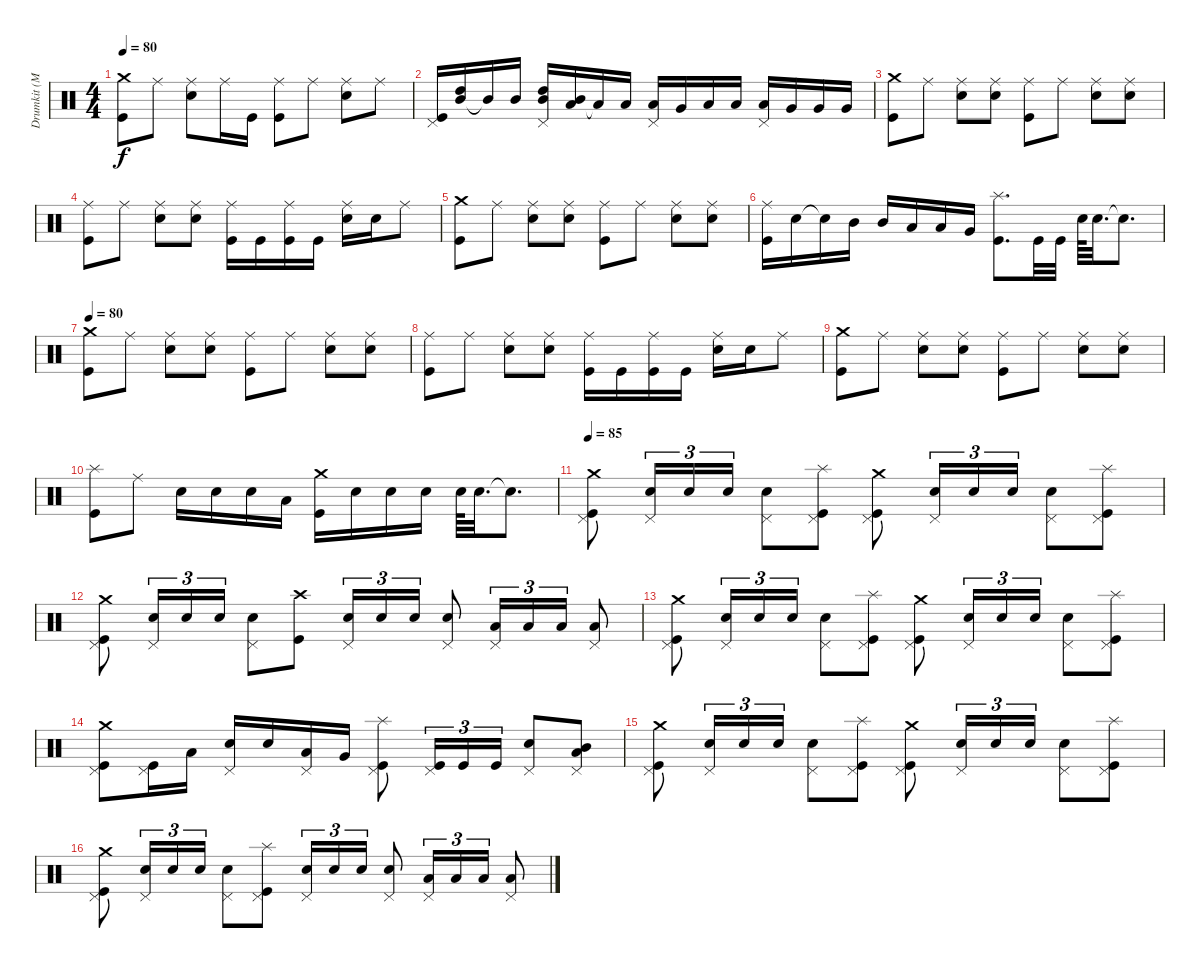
\track ("Drumkit (McBrain)" "Drumkit (M") {instrument percussion}
\staff {score}
\articulation defaults
\ts (4 4)
\tempo 80
\clef neutral
\ks c
("Crash medium (hit)" "Kick (hit)").8{dy f} "Ride (middle)".8 ("Snare (hit) 2" "Ride (middle)").8 "Ride (middle)".16 "Kick (hit)".16 ("Ride (middle)" "Kick (hit)").8 "Ride (middle)".8 ("Snare (hit) 2" "Ride (middle)").8 "Ride (middle)".8 |
("Kick (hit)" "Pedal Hi-Hat (hit)").16 ("Mid Tom (hit)" "High Tom (hit)").16 "Mid Tom (hit)"{t}.16 "Mid Tom (hit)".16 ("Mid Tom (hit)" "High Tom (hit)" "Pedal Hi-Hat (hit)").16 ("Low Tom (hit)" "Mid Tom (hit)").16 "Low Tom (hit)"{t}.16 "Low Tom (hit)".16 ("Low Tom (hit)" "Pedal Hi-Hat (hit)").16 "Very Low Tom (hit)".16 "Low Tom (hit)".16 "Low Tom (hit)".16 ("Low Tom (hit)" "Pedal Hi-Hat (hit)").16 "Very Low Tom (hit)".16 "Very Low Tom (hit)".16 "Very Low Tom (hit)".16 |
("Kick (hit)" "Crash medium (hit)").8 "Ride (middle)".8 ("Ride (middle)" "Snare (hit) 2").8 ("Ride (middle)" "Snare (hit) 2").8 ("Ride (middle)" "Kick (hit)").8 "Ride (middle)".8 ("Ride (middle)" "Snare (hit) 2").8 ("Ride (middle)" "Snare (hit) 2").8 |
("Ride (middle)" "Kick (hit)").8 "Ride (middle)".8 ("Ride (middle)" "Snare (hit) 2").8 ("Ride (middle)" "Snare (hit) 2").8 ("Kick (hit)" "Ride (middle)").16 "Kick (hit)".16 ("Kick (hit)" "Ride (middle)").16 "Kick (hit)".16 ("Snare (hit) 2" "Ride (middle)").16 "Snare (hit) 2".16 "Ride (middle)".8 |
("Kick (hit)" "Crash medium (hit)").8 "Ride (middle)".8 ("Ride (middle)" "Snare (hit) 2").8 ("Ride (middle)" "Snare (hit) 2").8 ("Ride (middle)" "Kick (hit)").8 "Ride (middle)".8 ("Ride (middle)" "Snare (hit) 2").8 ("Ride (middle)" "Snare (hit) 2").8 |
("Kick (hit)" "Ride (middle)").16 "Snare (hit) 2".16 "Snare (hit) 2"{t}.16 "Mid Tom (hit)".16 "Mid Tom (hit)".16 "Low Tom (hit)".16 "Low Tom (hit)".16 "Very Low Tom (hit)".16 ("Kick (hit)" "Splash (hit)").8{d} "Kick (hit)".32 "Kick (hit)".32 "Snare (hit) 2".64 "Snare (hit) 2".32{d} "Snare (hit) 2"{t}.8{d} |
\tempo 80
("Kick (hit)" "Crash medium (hit)").8 "Ride (middle)".8 ("Ride (middle)" "Snare (hit) 2").8 ("Ride (middle)" "Snare (hit) 2").8 ("Ride (middle)" "Kick (hit)").8 "Ride (middle)".8 ("Ride (middle)" "Snare (hit) 2").8 ("Ride (middle)" "Snare (hit) 2").8 |
("Ride (middle)" "Kick (hit)").8 "Ride (middle)".8 ("Ride (middle)" "Snare (hit) 2").8 ("Ride (middle)" "Snare (hit) 2").8 ("Kick (hit)" "Ride (middle)").16 "Kick (hit)".16 ("Kick (hit)" "Ride (middle)").16 "Kick (hit)".16 ("Snare (hit) 2" "Ride (middle)").16 "Snare (hit) 2".16 "Ride (middle)".8 |
("Kick (hit)" "Crash medium (hit)").8 "Ride (middle)".8 ("Ride (middle)" "Snare (hit) 2").8 ("Ride (middle)" "Snare (hit) 2").8 ("Ride (middle)" "Kick (hit)").8 "Ride (middle)".8 ("Ride (middle)" "Snare (hit) 2").8 ("Ride (middle)" "Snare (hit) 2").8 |
("Splash (hit)" "Kick (hit)").8 "Ride (middle)".8 "Snare (hit) 2".16 "Snare (hit) 2".16 "Snare (hit) 2".16 "Low Tom (hit)".16 ("Kick (hit)" "Crash medium (hit)").16 "Snare (hit) 2".16 "Snare (hit) 2".16 "Snare (hit) 2".16 "Snare (hit) 2".64 "Snare (hit) 2".32{d} "Snare (hit) 2"{t}.8{d} |
\tempo 85
("Kick (hit)" "Crash medium (hit)" "Pedal Hi-Hat (hit)").8 ("Snare (hit) 2" "Pedal Hi-Hat (hit)").16{tu (3 2)} "Snare (hit) 2".16{tu (3 2)} "Snare (hit) 2".16{tu (3 2)} ("Snare (hit) 2" "Pedal Hi-Hat (hit)").8 ("Kick (hit)" "Splash (hit)" "Pedal Hi-Hat (hit)").8 ("Kick (hit)" "Crash medium (hit)" "Pedal Hi-Hat (hit)").8 ("Snare (hit) 2" "Pedal Hi-Hat (hit)").16{tu (3 2)} "Snare (hit) 2".16{tu (3 2)} "Snare (hit) 2".16{tu (3 2)} ("Snare (hit) 2" "Pedal Hi-Hat (hit)").8 ("Kick (hit)" "Splash (hit)" "Pedal Hi-Hat (hit)").8 |
("Kick (hit)" "Crash medium (hit)" "Pedal Hi-Hat (hit)").8 ("Snare (hit) 2" "Pedal Hi-Hat (hit)").16{tu (3 2)} "Snare (hit) 2".16{tu (3 2)} "Snare (hit) 2".16{tu (3 2)} ("Snare (hit) 2" "Pedal Hi-Hat (hit)").8 ("Kick (hit)" "Crash high (hit)").8 ("Snare (hit) 2" "Pedal Hi-Hat (hit)").16{tu (3 2)} "Snare (hit) 2".16{tu (3 2)} "Snare (hit) 2".16{tu (3 2)} ("Snare (hit) 2" "Pedal Hi-Hat (hit)").8 ("Low Tom (hit)" "Pedal Hi-Hat (hit)").16{tu (3 2)} "Low Tom (hit)".16{tu (3 2)} "Low Tom (hit)".16{tu (3 2)} ("Low Tom (hit)" "Pedal Hi-Hat (hit)").8 |
("Kick (hit)" "Crash medium (hit)" "Pedal Hi-Hat (hit)").8 ("Snare (hit) 2" "Pedal Hi-Hat (hit)").16{tu (3 2)} "Snare (hit) 2".16{tu (3 2)} "Snare (hit) 2".16{tu (3 2)} ("Snare (hit) 2" "Pedal Hi-Hat (hit)").8 ("Kick (hit)" "Splash (hit)" "Pedal Hi-Hat (hit)").8 ("Kick (hit)" "Crash medium (hit)" "Pedal Hi-Hat (hit)").8 ("Snare (hit) 2" "Pedal Hi-Hat (hit)").16{tu (3 2)} "Snare (hit) 2".16{tu (3 2)} "Snare (hit) 2".16{tu (3 2)} ("Snare (hit) 2" "Pedal Hi-Hat (hit)").8 ("Kick (hit)" "Splash (hit)" "Pedal Hi-Hat (hit)").8 |
("Kick (hit)" "Crash medium (hit)" "Pedal Hi-Hat (hit)").8 ("Kick (hit)" "Pedal Hi-Hat (hit)").16 "Low Tom (hit)".16 ("Snare (hit) 2" "Pedal Hi-Hat (hit)").16 "Snare (hit) 2".16 ("Low Tom (hit)" "Pedal Hi-Hat (hit)").16 "Very Low Tom (hit)".16 ("Kick (hit)" "Splash (hit)" "Pedal Hi-Hat (hit)").8 ("Kick (hit)" "Pedal Hi-Hat (hit)").16{tu (3 2)} "Kick (hit)".16{tu (3 2)} "Kick (hit)".16{tu (3 2)} ("Snare (hit) 2" "Pedal Hi-Hat (hit)").8 ("Low Tom (hit)" "Mid Tom (hit)" "Pedal Hi-Hat (hit)").8 |
("Kick (hit)" "Crash medium (hit)" "Pedal Hi-Hat (hit)").8 ("Snare (hit) 2" "Pedal Hi-Hat (hit)").16{tu (3 2)} "Snare (hit) 2".16{tu (3 2)} "Snare (hit) 2".16{tu (3 2)} ("Snare (hit) 2" "Pedal Hi-Hat (hit)").8 ("Kick (hit)" "Splash (hit)" "Pedal Hi-Hat (hit)").8 ("Kick (hit)" "Crash medium (hit)" "Pedal Hi-Hat (hit)").8 ("Snare (hit) 2" "Pedal Hi-Hat (hit)").16{tu (3 2)} "Snare (hit) 2".16{tu (3 2)} "Snare (hit) 2".16{tu (3 2)} ("Snare (hit) 2" "Pedal Hi-Hat (hit)").8 ("Kick (hit)" "Splash (hit)" "Pedal Hi-Hat (hit)").8 |
("Kick (hit)" "Crash medium (hit)" "Pedal Hi-Hat (hit)").8 ("Snare (hit) 2" "Pedal Hi-Hat (hit)").16{tu (3 2)} "Snare (hit) 2".16{tu (3 2)} "Snare (hit) 2".16{tu (3 2)} ("Snare (hit) 2" "Pedal Hi-Hat (hit)").8 ("Kick (hit)" "Splash (hit)" "Pedal Hi-Hat (hit)").8 ("Snare (hit) 2" "Pedal Hi-Hat (hit)").16{tu (3 2)} "Snare (hit) 2".16{tu (3 2)} "Snare (hit) 2".16{tu (3 2)} ("Snare (hit) 2" "Pedal Hi-Hat (hit)").8 ("Low Tom (hit)" "Pedal Hi-Hat (hit)").16{tu (3 2)} "Low Tom (hit)".16{tu (3 2)} "Low Tom (hit)".16{tu (3 2)} ("Low Tom (hit)" "Pedal Hi-Hat (hit)").8
